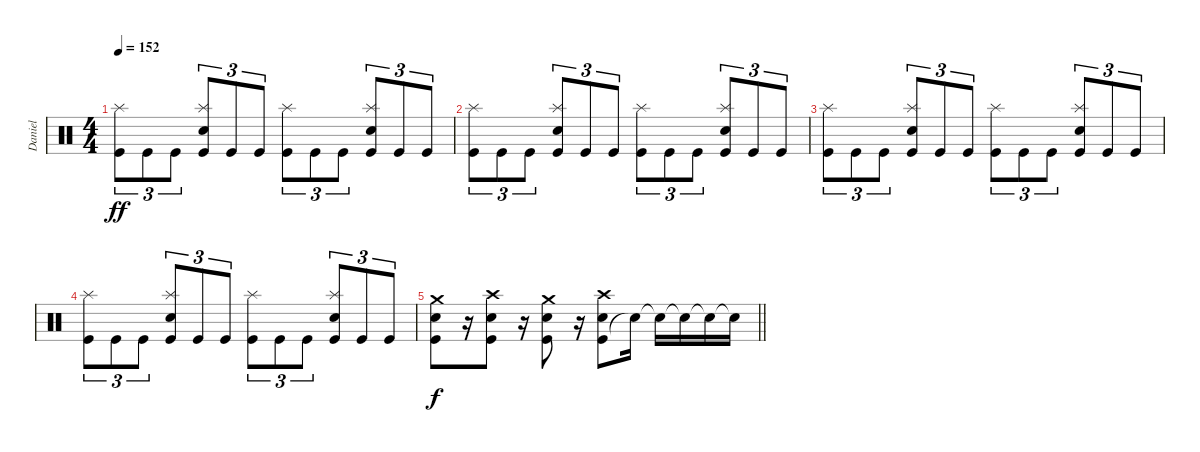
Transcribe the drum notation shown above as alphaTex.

\track ("Daniel" "Daniel") {instrument percussion}
\staff {score}
\articulation defaults
\ts (4 4)
\tempo 152
\clef neutral
\ks c
("Kick (hit)" "Splash (hit)").8{tu (3 2) dy ff} "Kick (hit)".8{tu (3 2)} "Kick (hit)".8{tu (3 2)} ("Kick (hit)" "Snare (hit) 2" "Splash (hit)").8{tu (3 2)} "Kick (hit)".8{tu (3 2)} "Kick (hit)".8{tu (3 2)} ("Kick (hit)" "Splash (hit)").8{tu (3 2)} "Kick (hit)".8{tu (3 2)} "Kick (hit)".8{tu (3 2)} ("Kick (hit)" "Snare (hit) 2" "Splash (hit)").8{tu (3 2)} "Kick (hit)".8{tu (3 2)} "Kick (hit)".8{tu (3 2)} |
("Kick (hit)" "Splash (hit)").8{tu (3 2)} "Kick (hit)".8{tu (3 2)} "Kick (hit)".8{tu (3 2)} ("Kick (hit)" "Snare (hit) 2" "Splash (hit)").8{tu (3 2)} "Kick (hit)".8{tu (3 2)} "Kick (hit)".8{tu (3 2)} ("Kick (hit)" "Splash (hit)").8{tu (3 2)} "Kick (hit)".8{tu (3 2)} "Kick (hit)".8{tu (3 2)} ("Kick (hit)" "Snare (hit) 2" "Splash (hit)").8{tu (3 2)} "Kick (hit)".8{tu (3 2)} "Kick (hit)".8{tu (3 2)} |
("Kick (hit)" "Splash (hit)").8{tu (3 2)} "Kick (hit)".8{tu (3 2)} "Kick (hit)".8{tu (3 2)} ("Kick (hit)" "Snare (hit) 2" "Splash (hit)").8{tu (3 2)} "Kick (hit)".8{tu (3 2)} "Kick (hit)".8{tu (3 2)} ("Kick (hit)" "Splash (hit)").8{tu (3 2)} "Kick (hit)".8{tu (3 2)} "Kick (hit)".8{tu (3 2)} ("Kick (hit)" "Snare (hit) 2" "Splash (hit)").8{tu (3 2)} "Kick (hit)".8{tu (3 2)} "Kick (hit)".8{tu (3 2)} |
("Kick (hit)" "Splash (hit)").8{tu (3 2)} "Kick (hit)".8{tu (3 2)} "Kick (hit)".8{tu (3 2)} ("Kick (hit)" "Snare (hit) 2" "Splash (hit)").8{tu (3 2)} "Kick (hit)".8{tu (3 2)} "Kick (hit)".8{tu (3 2)} ("Kick (hit)" "Splash (hit)").8{tu (3 2)} "Kick (hit)".8{tu (3 2)} "Kick (hit)".8{tu (3 2)} ("Kick (hit)" "Snare (hit) 2" "Splash (hit)").8{tu (3 2)} "Kick (hit)".8{tu (3 2)} "Kick (hit)".8{tu (3 2)} |
\barLineRight lightlight
("Kick (hit)" "Snare (hit) 2" "Crash medium (hit)").8{dy f} r.16 ("Kick (hit)" "Snare (hit) 2" "Crash high (hit)").8 r.16 ("Kick (hit)" "Snare (hit) 2" "Crash medium (hit)").8 r.16 ("Kick (hit)" "Snare (hit) 2" "Crash high (hit)").8 "Snare (hit)"{t}.16 "Snare (hit)"{t}.16 "Snare (hit)"{t}.16 "Snare (hit)"{t}.16 "Snare (hit)"{t}.16
